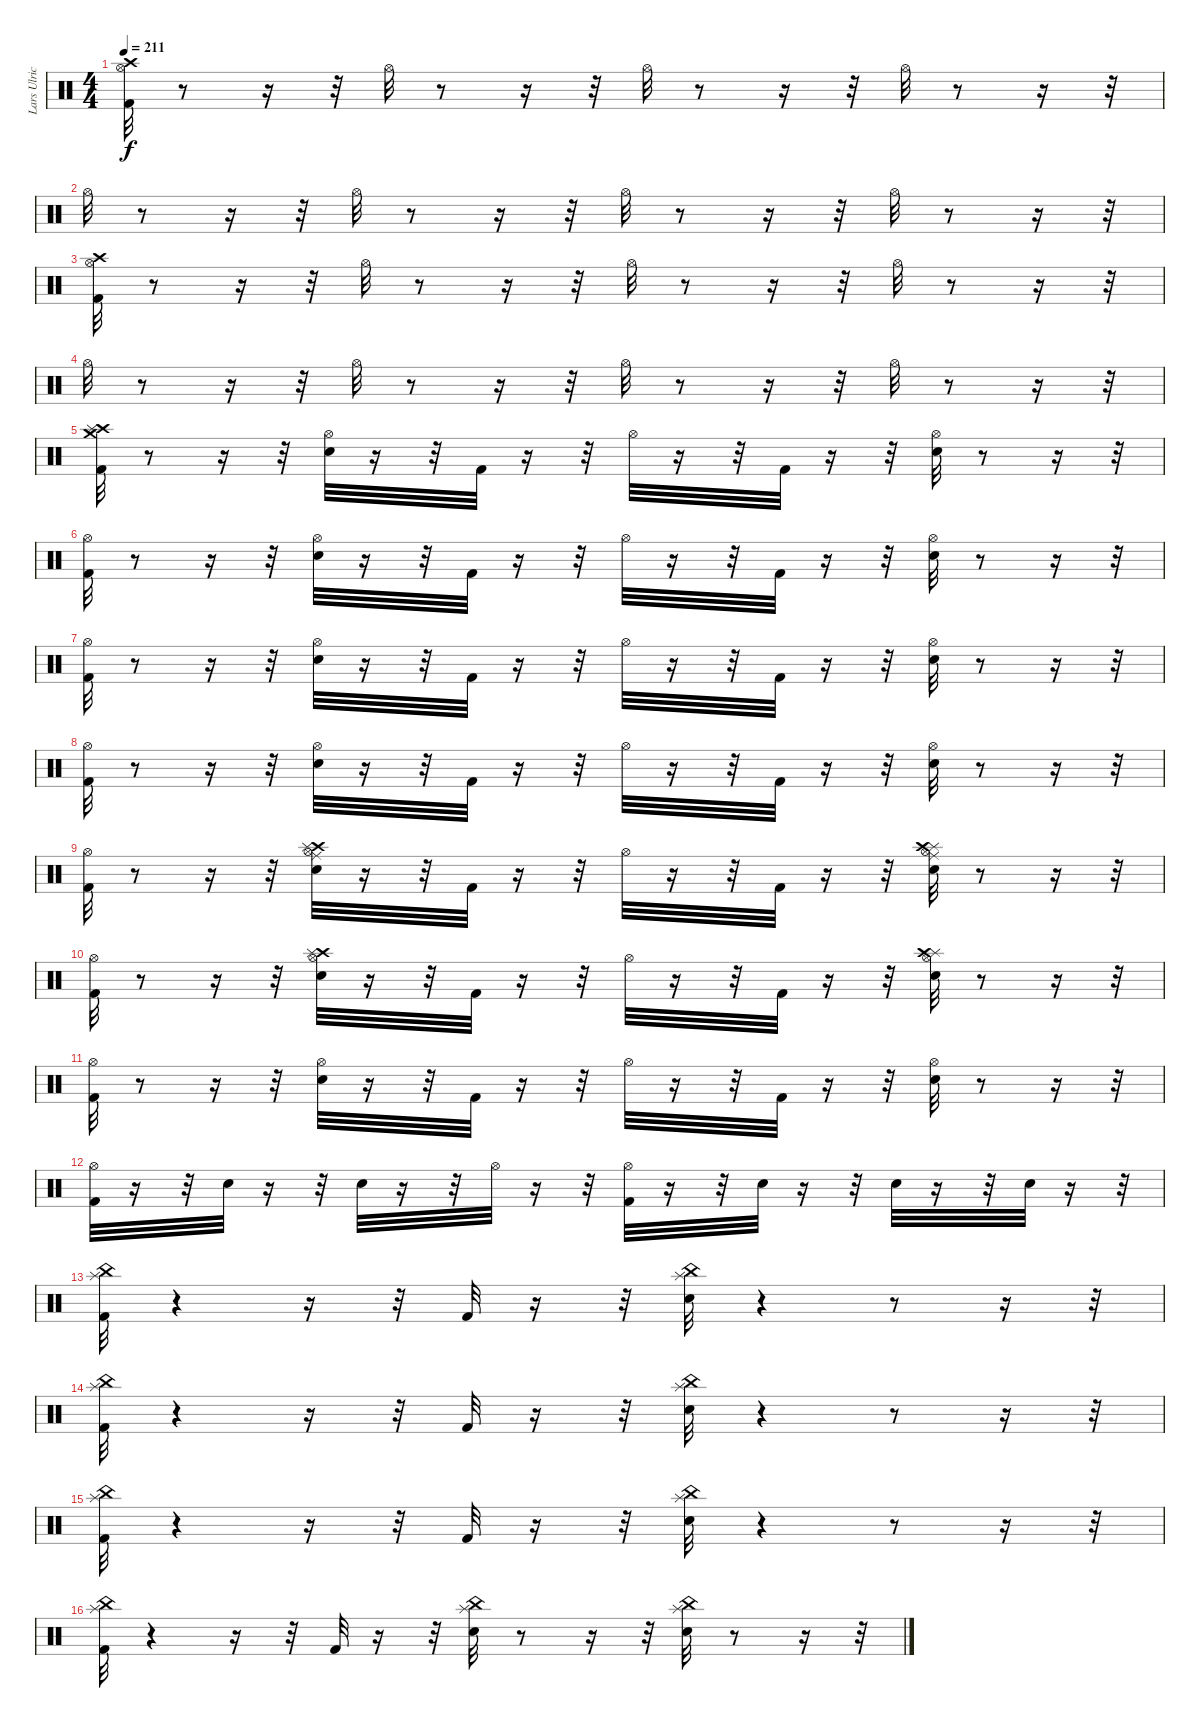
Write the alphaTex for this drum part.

\track ("Lars Ulrich (Drums)" "Lars Ulric") {instrument percussion}
\staff {score}
\articulation defaults
\ts (4 4)
\tempo 211
\clef neutral
\ks c
("Hi-Hat (open)" "Crash high (hit)" "Kick (hit) 2").32{dy f} r.8 r.16 r.32 "Hi-Hat (open)".32 r.8 r.16 r.32 "Hi-Hat (open)".32 r.8 r.16 r.32 "Hi-Hat (open)".32 r.8 r.16 r.32 |
"Hi-Hat (open)".32 r.8 r.16 r.32 "Hi-Hat (open)".32 r.8 r.16 r.32 "Hi-Hat (open)".32 r.8 r.16 r.32 "Hi-Hat (open)".32 r.8 r.16 r.32 |
("Hi-Hat (open)" "Crash high (hit)" "Kick (hit) 2").32 r.8 r.16 r.32 "Hi-Hat (open)".32 r.8 r.16 r.32 "Hi-Hat (open)".32 r.8 r.16 r.32 "Hi-Hat (open)".32 r.8 r.16 r.32 |
"Hi-Hat (open)".32 r.8 r.16 r.32 "Hi-Hat (open)".32 r.8 r.16 r.32 "Hi-Hat (open)".32 r.8 r.16 r.32 "Hi-Hat (open)".32 r.8 r.16 r.32 |
("Kick (hit) 2" "Crash high (hit)" "Crash medium (hit)" "Splash (hit)").32 r.8 r.16 r.32 ("Snare (hit) 2" "Hi-Hat (open)").32 r.16 r.32 "Kick (hit) 2".32 r.16 r.32 "Hi-Hat (open)".32 r.16 r.32 "Kick (hit) 2".32 r.16 r.32 ("Snare (hit) 2" "Hi-Hat (open)").32 r.8 r.16 r.32 |
("Kick (hit) 2" "Hi-Hat (open)").32 r.8 r.16 r.32 ("Snare (hit) 2" "Hi-Hat (open)").32 r.16 r.32 "Kick (hit) 2".32 r.16 r.32 "Hi-Hat (open)".32 r.16 r.32 "Kick (hit) 2".32 r.16 r.32 ("Snare (hit) 2" "Hi-Hat (open)").32 r.8 r.16 r.32 |
("Kick (hit) 2" "Hi-Hat (open)").32 r.8 r.16 r.32 ("Snare (hit) 2" "Hi-Hat (open)").32 r.16 r.32 "Kick (hit) 2".32 r.16 r.32 "Hi-Hat (open)".32 r.16 r.32 "Kick (hit) 2".32 r.16 r.32 ("Snare (hit) 2" "Hi-Hat (open)").32 r.8 r.16 r.32 |
("Kick (hit) 2" "Hi-Hat (open)").32 r.8 r.16 r.32 ("Snare (hit) 2" "Hi-Hat (open)").32 r.16 r.32 "Kick (hit) 2".32 r.16 r.32 "Hi-Hat (open)".32 r.16 r.32 "Kick (hit) 2".32 r.16 r.32 ("Snare (hit) 2" "Hi-Hat (open)").32 r.8 r.16 r.32 |
("Kick (hit) 2" "Hi-Hat (open)").32 r.8 r.16 r.32 ("Ride (middle)" "Crash high (hit)" "Splash (hit)" "Snare (hit) 2" "Hi-Hat (open)").32 r.16 r.32 "Kick (hit) 2".32 r.16 r.32 "Hi-Hat (open)".32 r.16 r.32 "Kick (hit) 2".32 r.16 r.32 ("Splash (hit)" "Ride (middle)" "Crash high (hit)" "Snare (hit) 2" "Hi-Hat (open)").32 r.8 r.16 r.32 |
("Kick (hit) 2" "Hi-Hat (open)").32 r.8 r.16 r.32 ("Crash high (hit)" "Splash (hit)" "Snare (hit) 2" "Hi-Hat (open)").32 r.16 r.32 "Kick (hit) 2".32 r.16 r.32 "Hi-Hat (open)".32 r.16 r.32 "Kick (hit) 2".32 r.16 r.32 ("Splash (hit)" "Crash high (hit)" "Snare (hit) 2" "Hi-Hat (open)").32 r.8 r.16 r.32 |
("Kick (hit) 2" "Hi-Hat (open)").32 r.8 r.16 r.32 ("Snare (hit) 2" "Hi-Hat (open)").32 r.16 r.32 "Kick (hit) 2".32 r.16 r.32 "Hi-Hat (open)".32 r.16 r.32 "Kick (hit) 2".32 r.16 r.32 ("Snare (hit) 2" "Hi-Hat (open)").32 r.8 r.16 r.32 |
("Kick (hit) 2" "Hi-Hat (open)").32 r.16 r.32 "Snare (hit) 2".32 r.16 r.32 "Snare (hit) 2".32 r.16 r.32 "Hi-Hat (open)".32 r.16 r.32 ("Kick (hit) 2" "Hi-Hat (open)").32 r.16 r.32 "Snare (hit) 2".32 r.16 r.32 "Snare (hit) 2".32 r.16 r.32 "Snare (hit) 2".32 r.16 r.32 |
("Kick (hit) 2" "China (hit)" "Splash (hit)").32 r.4 r.16 r.32 "Kick (hit) 2".32 r.16 r.32 ("Snare (hit) 2" "China (hit)" "Splash (hit)").32 r.4 r.8 r.16 r.32 |
("Kick (hit) 2" "China (hit)" "Splash (hit)").32 r.4 r.16 r.32 "Kick (hit) 2".32 r.16 r.32 ("Snare (hit) 2" "China (hit)" "Splash (hit)").32 r.4 r.8 r.16 r.32 |
("Kick (hit) 2" "China (hit)" "Splash (hit)").32 r.4 r.16 r.32 "Kick (hit) 2".32 r.16 r.32 ("Snare (hit) 2" "China (hit)" "Splash (hit)").32 r.4 r.8 r.16 r.32 |
("Kick (hit) 2" "China (hit)" "Splash (hit)").32 r.4 r.16 r.32 "Kick (hit) 2".32 r.16 r.32 ("Snare (hit) 2" "China (hit)" "Splash (hit)").32 r.8 r.16 r.32 ("Splash (hit)" "China (hit)" "Snare (hit) 2").32 r.8 r.16 r.32
